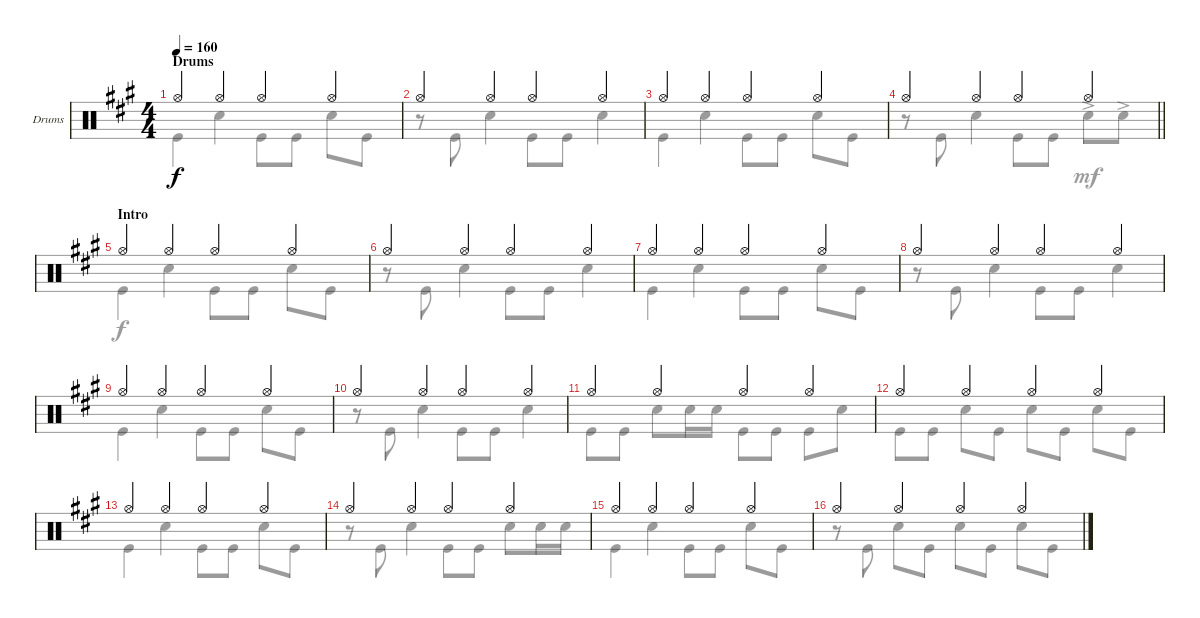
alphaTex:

\bracketExtendMode groupsimilarinstruments
\firstSystemTrackNameOrientation horizontal
\otherSystemsTrackNameOrientation horizontal
\track ("Drumkit" "Drums") {instrument percussion}
\staff {score}
\articulation defaults
\voice
\ts (4 4)
\beaming (8 2 2 2 2)
\section ("" "Drums")
\tempo 160
\clef neutral
\ks a "Hi-Hat (open)".4{dy f} "Hi-Hat (open)".4 "Hi-Hat (open)".4 "Hi-Hat (open)".4
|
"Hi-Hat (open)".4 "Hi-Hat (open)".4 "Hi-Hat (open)".4 "Hi-Hat (open)".4 |
"Hi-Hat (open)".4 "Hi-Hat (open)".4 "Hi-Hat (open)".4 "Hi-Hat (open)".4 |
\barLineRight lightlight "Hi-Hat (open)".4 "Hi-Hat (open)".4 "Hi-Hat (open)".4 "Hi-Hat (open)".4
|
\section ("" "Intro")
"Hi-Hat (open)".4 "Hi-Hat (open)".4 "Hi-Hat (open)".4 "Hi-Hat (open)".4 |
"Hi-Hat (open)".4 "Hi-Hat (open)".4 "Hi-Hat (open)".4 "Hi-Hat (open)".4 |
"Hi-Hat (open)".4 "Hi-Hat (open)".4 "Hi-Hat (open)".4 "Hi-Hat (open)".4 |
"Hi-Hat (open)".4 "Hi-Hat (open)".4 "Hi-Hat (open)".4 "Hi-Hat (open)".4 |
"Hi-Hat (open)".4 "Hi-Hat (open)".4 "Hi-Hat (open)".4 "Hi-Hat (open)".4 |
"Hi-Hat (open)".4 "Hi-Hat (open)".4 "Hi-Hat (open)".4 "Hi-Hat (open)".4 |
"Hi-Hat (open)".4 "Hi-Hat (open)".4 "Hi-Hat (open)".4 "Hi-Hat (open)".4 |
"Hi-Hat (open)".4 "Hi-Hat (open)".4 "Hi-Hat (open)".4 "Hi-Hat (open)".4 |
"Hi-Hat (open)".4 "Hi-Hat (open)".4 "Hi-Hat (open)".4 "Hi-Hat (open)".4 |
"Hi-Hat (open)".4 "Hi-Hat (open)".4 "Hi-Hat (open)".4 "Hi-Hat (open)".4 |
"Hi-Hat (open)".4 "Hi-Hat (open)".4 "Hi-Hat (open)".4 "Hi-Hat (open)".4 |
"Hi-Hat (open)".4 "Hi-Hat (open)".4 "Hi-Hat (open)".4 "Hi-Hat (open)".4
\voice
\clef neutral
\ottava regular
\simile none
\ks a "Kick (hit)".4{dy f} "Snare (hit) 2".4 "Kick (hit)".8 "Kick (hit)".8 "Snare (hit) 2".8 "Kick (hit)".8
|
r.8 "Kick (hit)".8 "Snare (hit) 2".4 "Kick (hit)".8 "Kick (hit)".8 "Snare (hit) 2".4 |
"Kick (hit)".4 "Snare (hit) 2".4 "Kick (hit)".8 "Kick (hit)".8 "Snare (hit) 2".8 "Kick (hit)".8 |
\barLineRight lightlight
r.8 "Kick (hit)".8 "Snare (hit) 2".4 "Kick (hit)".8 "Kick (hit)".8 "Snare (hit) 2"{ac}.8{dy mf} "Snare (hit) 2"{ac}.8 |
"Kick (hit)".4{dy f} "Snare (hit) 2".4 "Kick (hit)".8 "Kick (hit)".8 "Snare (hit) 2".8 "Kick (hit)".8 |
r.8 "Kick (hit)".8 "Snare (hit) 2".4 "Kick (hit)".8 "Kick (hit)".8 "Snare (hit) 2".4 |
"Kick (hit)".4 "Snare (hit) 2".4 "Kick (hit)".8 "Kick (hit)".8 "Snare (hit) 2".8 "Kick (hit)".8 |
r.8 "Kick (hit)".8 "Snare (hit) 2".4 "Kick (hit)".8 "Kick (hit)".8 "Snare (hit) 2".4 |
"Kick (hit)".4 "Snare (hit) 2".4 "Kick (hit)".8 "Kick (hit)".8 "Snare (hit) 2".8 "Kick (hit)".8 |
r.8 "Kick (hit)".8 "Snare (hit) 2".4 "Kick (hit)".8 "Kick (hit)".8 "Snare (hit) 2".4 |
"Kick (hit)".8 "Kick (hit)".8 "Snare (hit) 2".8 "Snare (hit) 2".16 "Snare (hit) 2".16 "Kick (hit)".8 "Kick (hit)".8 "Kick (hit)".8 "Snare (hit) 2".8 |
"Kick (hit)".8 "Kick (hit)".8 "Snare (hit) 2".8 "Kick (hit)".8 "Snare (hit) 2".8 "Kick (hit)".8 "Snare (hit) 2".8 "Kick (hit)".8 |
"Kick (hit)".4 "Snare (hit) 2".4 "Kick (hit)".8 "Kick (hit)".8 "Snare (hit) 2".8 "Kick (hit)".8 |
r.8 "Kick (hit)".8 "Snare (hit) 2".4 "Kick (hit)".8 "Kick (hit)".8 "Snare (hit) 2".8 "Snare (hit) 2".16 "Snare (hit) 2".16 |
"Kick (hit)".4 "Snare (hit) 2".4 "Kick (hit)".8 "Kick (hit)".8 "Snare (hit) 2".8 "Kick (hit)".8 |
r.8 "Kick (hit)".8 "Snare (hit) 2".8 "Kick (hit)".8 "Snare (hit) 2".8 "Kick (hit)".8 "Snare (hit) 2".8 "Kick (hit)".8
